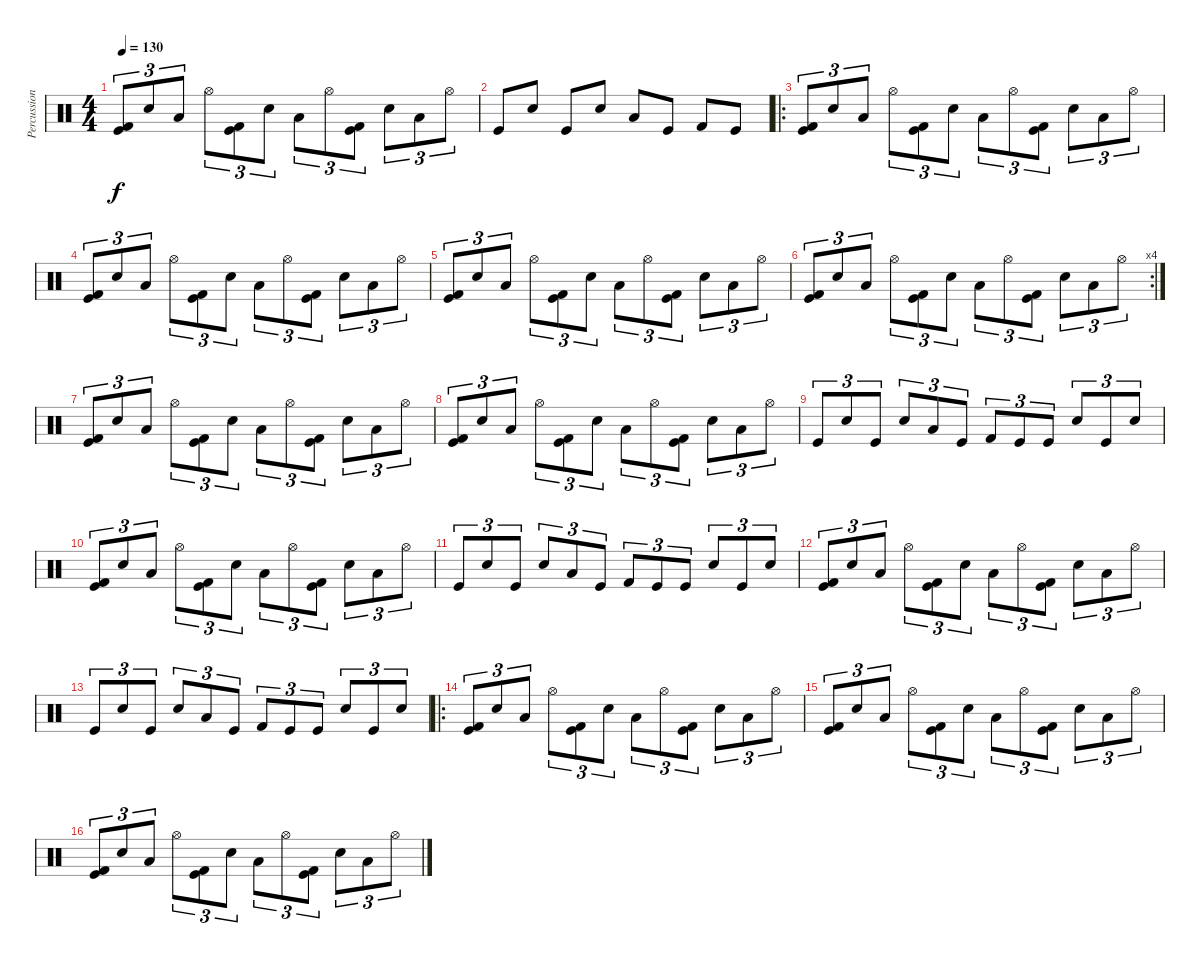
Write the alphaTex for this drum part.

\track ("Percussion" "Percussion") {instrument percussion}
\staff {score}
\articulation defaults
\ts (4 4)
\tempo 130
\clef neutral
\ks c
("Kick (hit)" "Kick (hit) 2").8{tu (3 2) dy f} "Snare (hit) 2".8{tu (3 2)} "Low Tom (hit)".8{tu (3 2)} "Hi-Hat (open)".8{tu (3 2)} ("Kick (hit)" "Kick (hit) 2").8{tu (3 2)} "Snare (hit) 2".8{tu (3 2)} "Low Tom (hit)".8{tu (3 2)} "Hi-Hat (open)".8{tu (3 2)} ("Kick (hit)" "Kick (hit) 2").8{tu (3 2)} "Snare (hit) 2".8{tu (3 2)} "Low Tom (hit)".8{tu (3 2)} "Hi-Hat (open)".8{tu (3 2)} |
"Kick (hit)".8 "Snare (hit) 2".8 "Kick (hit)".8 "Snare (hit) 2".8 "Low Tom (hit)".8 "Kick (hit)".8 "Kick (hit) 2".8 "Kick (hit)".8 |
\ro
("Kick (hit)" "Kick (hit) 2").8{tu (3 2)} "Snare (hit) 2".8{tu (3 2)} "Low Tom (hit)".8{tu (3 2)} "Hi-Hat (open)".8{tu (3 2)} ("Kick (hit)" "Kick (hit) 2").8{tu (3 2)} "Snare (hit) 2".8{tu (3 2)} "Low Tom (hit)".8{tu (3 2)} "Hi-Hat (open)".8{tu (3 2)} ("Kick (hit)" "Kick (hit) 2").8{tu (3 2)} "Snare (hit) 2".8{tu (3 2)} "Low Tom (hit)".8{tu (3 2)} "Hi-Hat (open)".8{tu (3 2)} |
("Kick (hit)" "Kick (hit) 2").8{tu (3 2)} "Snare (hit) 2".8{tu (3 2)} "Low Tom (hit)".8{tu (3 2)} "Hi-Hat (open)".8{tu (3 2)} ("Kick (hit)" "Kick (hit) 2").8{tu (3 2)} "Snare (hit) 2".8{tu (3 2)} "Low Tom (hit)".8{tu (3 2)} "Hi-Hat (open)".8{tu (3 2)} ("Kick (hit)" "Kick (hit) 2").8{tu (3 2)} "Snare (hit) 2".8{tu (3 2)} "Low Tom (hit)".8{tu (3 2)} "Hi-Hat (open)".8{tu (3 2)} |
("Kick (hit)" "Kick (hit) 2").8{tu (3 2)} "Snare (hit) 2".8{tu (3 2)} "Low Tom (hit)".8{tu (3 2)} "Hi-Hat (open)".8{tu (3 2)} ("Kick (hit)" "Kick (hit) 2").8{tu (3 2)} "Snare (hit) 2".8{tu (3 2)} "Low Tom (hit)".8{tu (3 2)} "Hi-Hat (open)".8{tu (3 2)} ("Kick (hit)" "Kick (hit) 2").8{tu (3 2)} "Snare (hit) 2".8{tu (3 2)} "Low Tom (hit)".8{tu (3 2)} "Hi-Hat (open)".8{tu (3 2)} |
\rc 4
("Kick (hit)" "Kick (hit) 2").8{tu (3 2)} "Snare (hit) 2".8{tu (3 2)} "Low Tom (hit)".8{tu (3 2)} "Hi-Hat (open)".8{tu (3 2)} ("Kick (hit)" "Kick (hit) 2").8{tu (3 2)} "Snare (hit) 2".8{tu (3 2)} "Low Tom (hit)".8{tu (3 2)} "Hi-Hat (open)".8{tu (3 2)} ("Kick (hit)" "Kick (hit) 2").8{tu (3 2)} "Snare (hit) 2".8{tu (3 2)} "Low Tom (hit)".8{tu (3 2)} "Hi-Hat (open)".8{tu (3 2)} |
("Kick (hit)" "Kick (hit) 2").8{tu (3 2)} "Snare (hit) 2".8{tu (3 2)} "Low Tom (hit)".8{tu (3 2)} "Hi-Hat (open)".8{tu (3 2)} ("Kick (hit)" "Kick (hit) 2").8{tu (3 2)} "Snare (hit) 2".8{tu (3 2)} "Low Tom (hit)".8{tu (3 2)} "Hi-Hat (open)".8{tu (3 2)} ("Kick (hit)" "Kick (hit) 2").8{tu (3 2)} "Snare (hit) 2".8{tu (3 2)} "Low Tom (hit)".8{tu (3 2)} "Hi-Hat (open)".8{tu (3 2)} |
("Kick (hit)" "Kick (hit) 2").8{tu (3 2)} "Snare (hit) 2".8{tu (3 2)} "Low Tom (hit)".8{tu (3 2)} "Hi-Hat (open)".8{tu (3 2)} ("Kick (hit)" "Kick (hit) 2").8{tu (3 2)} "Snare (hit) 2".8{tu (3 2)} "Low Tom (hit)".8{tu (3 2)} "Hi-Hat (open)".8{tu (3 2)} ("Kick (hit)" "Kick (hit) 2").8{tu (3 2)} "Snare (hit) 2".8{tu (3 2)} "Low Tom (hit)".8{tu (3 2)} "Hi-Hat (open)".8{tu (3 2)} |
"Kick (hit)".8{tu (3 2)} "Snare (hit) 2".8{tu (3 2)} "Kick (hit)".8{tu (3 2)} "Snare (hit) 2".8{tu (3 2)} "Low Tom (hit)".8{tu (3 2)} "Kick (hit)".8{tu (3 2)} "Kick (hit) 2".8{tu (3 2)} "Kick (hit)".8{tu (3 2)} "Kick (hit)".8{tu (3 2)} "Snare (hit) 2".8{tu (3 2)} "Kick (hit)".8{tu (3 2)} "Snare (hit) 2".8{tu (3 2)} |
("Kick (hit)" "Kick (hit) 2").8{tu (3 2)} "Snare (hit) 2".8{tu (3 2)} "Low Tom (hit)".8{tu (3 2)} "Hi-Hat (open)".8{tu (3 2)} ("Kick (hit)" "Kick (hit) 2").8{tu (3 2)} "Snare (hit) 2".8{tu (3 2)} "Low Tom (hit)".8{tu (3 2)} "Hi-Hat (open)".8{tu (3 2)} ("Kick (hit)" "Kick (hit) 2").8{tu (3 2)} "Snare (hit) 2".8{tu (3 2)} "Low Tom (hit)".8{tu (3 2)} "Hi-Hat (open)".8{tu (3 2)} |
"Kick (hit)".8{tu (3 2)} "Snare (hit) 2".8{tu (3 2)} "Kick (hit)".8{tu (3 2)} "Snare (hit) 2".8{tu (3 2)} "Low Tom (hit)".8{tu (3 2)} "Kick (hit)".8{tu (3 2)} "Kick (hit) 2".8{tu (3 2)} "Kick (hit)".8{tu (3 2)} "Kick (hit)".8{tu (3 2)} "Snare (hit) 2".8{tu (3 2)} "Kick (hit)".8{tu (3 2)} "Snare (hit) 2".8{tu (3 2)} |
("Kick (hit)" "Kick (hit) 2").8{tu (3 2)} "Snare (hit) 2".8{tu (3 2)} "Low Tom (hit)".8{tu (3 2)} "Hi-Hat (open)".8{tu (3 2)} ("Kick (hit)" "Kick (hit) 2").8{tu (3 2)} "Snare (hit) 2".8{tu (3 2)} "Low Tom (hit)".8{tu (3 2)} "Hi-Hat (open)".8{tu (3 2)} ("Kick (hit)" "Kick (hit) 2").8{tu (3 2)} "Snare (hit) 2".8{tu (3 2)} "Low Tom (hit)".8{tu (3 2)} "Hi-Hat (open)".8{tu (3 2)} |
"Kick (hit)".8{tu (3 2)} "Snare (hit) 2".8{tu (3 2)} "Kick (hit)".8{tu (3 2)} "Snare (hit) 2".8{tu (3 2)} "Low Tom (hit)".8{tu (3 2)} "Kick (hit)".8{tu (3 2)} "Kick (hit) 2".8{tu (3 2)} "Kick (hit)".8{tu (3 2)} "Kick (hit)".8{tu (3 2)} "Snare (hit) 2".8{tu (3 2)} "Kick (hit)".8{tu (3 2)} "Snare (hit) 2".8{tu (3 2)} |
\ro
("Kick (hit)" "Kick (hit) 2").8{tu (3 2)} "Snare (hit) 2".8{tu (3 2)} "Low Tom (hit)".8{tu (3 2)} "Hi-Hat (open)".8{tu (3 2)} ("Kick (hit)" "Kick (hit) 2").8{tu (3 2)} "Snare (hit) 2".8{tu (3 2)} "Low Tom (hit)".8{tu (3 2)} "Hi-Hat (open)".8{tu (3 2)} ("Kick (hit)" "Kick (hit) 2").8{tu (3 2)} "Snare (hit) 2".8{tu (3 2)} "Low Tom (hit)".8{tu (3 2)} "Hi-Hat (open)".8{tu (3 2)} |
("Kick (hit)" "Kick (hit) 2").8{tu (3 2)} "Snare (hit) 2".8{tu (3 2)} "Low Tom (hit)".8{tu (3 2)} "Hi-Hat (open)".8{tu (3 2)} ("Kick (hit)" "Kick (hit) 2").8{tu (3 2)} "Snare (hit) 2".8{tu (3 2)} "Low Tom (hit)".8{tu (3 2)} "Hi-Hat (open)".8{tu (3 2)} ("Kick (hit)" "Kick (hit) 2").8{tu (3 2)} "Snare (hit) 2".8{tu (3 2)} "Low Tom (hit)".8{tu (3 2)} "Hi-Hat (open)".8{tu (3 2)} |
("Kick (hit)" "Kick (hit) 2").8{tu (3 2)} "Snare (hit) 2".8{tu (3 2)} "Low Tom (hit)".8{tu (3 2)} "Hi-Hat (open)".8{tu (3 2)} ("Kick (hit)" "Kick (hit) 2").8{tu (3 2)} "Snare (hit) 2".8{tu (3 2)} "Low Tom (hit)".8{tu (3 2)} "Hi-Hat (open)".8{tu (3 2)} ("Kick (hit)" "Kick (hit) 2").8{tu (3 2)} "Snare (hit) 2".8{tu (3 2)} "Low Tom (hit)".8{tu (3 2)} "Hi-Hat (open)".8{tu (3 2)}
